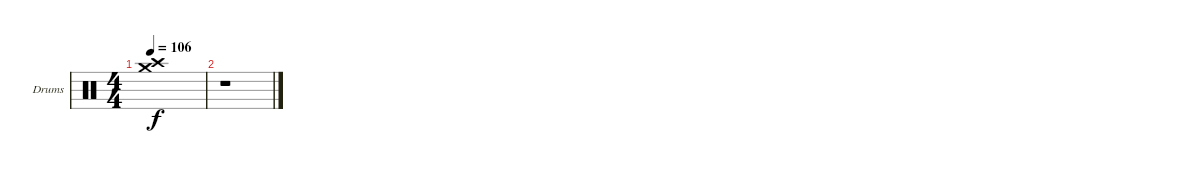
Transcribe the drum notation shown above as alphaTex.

\bracketExtendMode groupsimilarinstruments
\firstSystemTrackNameOrientation horizontal
\otherSystemsTrackNameOrientation horizontal
\track ("Drumkit" "Drums") {instrument percussion}
\staff {score}
\articulation defaults
\ts (4 4)
\tempo 106
\clef neutral
\ks c
("Crash high (hit)" "Crash medium (hit)").1{dy f} |
r.1
